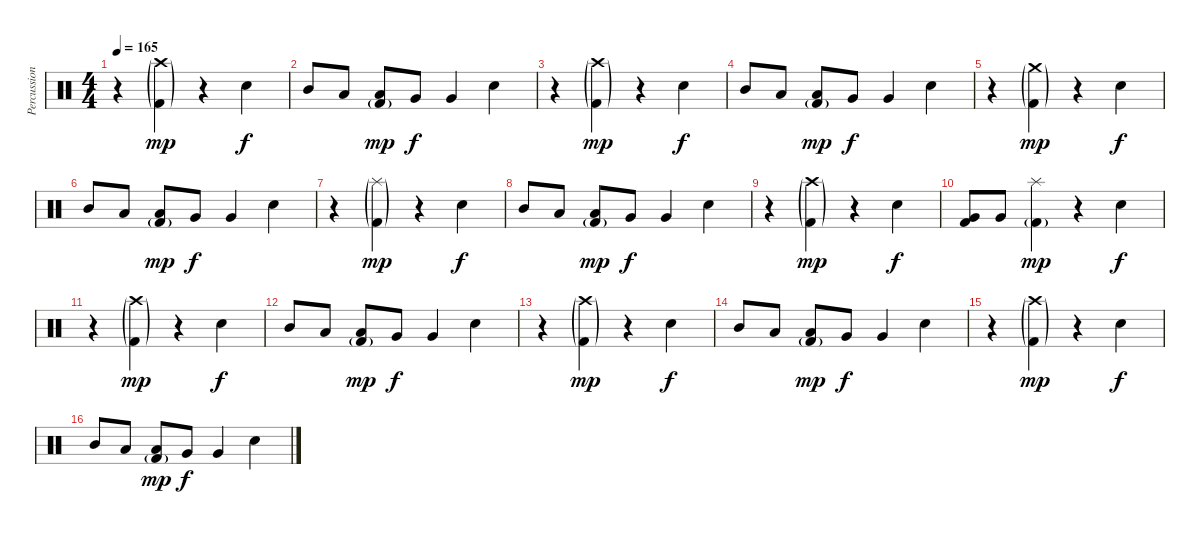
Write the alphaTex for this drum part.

\track ("Percussions" "Percussion") {instrument percussion}
\staff {score}
\articulation defaults
\ts (4 4)
\tempo 165
\clef neutral
\ks c
r.4{dy f} ("Kick (hit) 2"{g} "Crash high (hit)"{g}).4{dy mp} r.4 "Electric Snare (hit)".4{dy f} |
"Mid Tom (hit)".8 "Low Tom (hit)".8 ("Kick (hit) 2"{g} "Low Tom (hit)").8{dy mp} "Very Low Tom (hit)".8{dy f} "Very Low Tom (hit)".4 "Electric Snare (hit)".4 |
r.4 ("Kick (hit) 2"{g} "Crash high (hit)"{g}).4{dy mp} r.4 "Electric Snare (hit)".4{dy f} |
"Mid Tom (hit)".8 "Low Tom (hit)".8 ("Kick (hit) 2"{g} "Low Tom (hit)").8{dy mp} "Very Low Tom (hit)".8{dy f} "Very Low Tom (hit)".4 "Electric Snare (hit)".4 |
r.4 ("Kick (hit) 2"{g} "Crash medium (hit)"{g}).4{dy mp} r.4 "Electric Snare (hit)".4{dy f} |
"Mid Tom (hit)".8 "Low Tom (hit)".8 ("Kick (hit) 2"{g} "Low Tom (hit)").8{dy mp} "Very Low Tom (hit)".8{dy f} "Very Low Tom (hit)".4 "Electric Snare (hit)".4 |
r.4 ("Kick (hit) 2"{g} "Splash (hit)"{g}).4{dy mp} r.4 "Electric Snare (hit)".4{dy f} |
"Mid Tom (hit)".8 "Low Tom (hit)".8 ("Kick (hit) 2"{g} "Low Tom (hit)").8{dy mp} "Very Low Tom (hit)".8{dy f} "Very Low Tom (hit)".4 "Electric Snare (hit)".4 |
r.4 ("Kick (hit) 2"{g} "Crash high (hit)"{g}).4{dy mp} r.4 "Electric Snare (hit)".4{dy f} |
("Very Low Tom (hit)" "Kick (hit) 2").8 "Very Low Tom (hit)".8 ("Kick (hit) 2"{g} "Splash (hit)").4{dy mp} r.4 "Electric Snare (hit)".4{dy f} |
r.4 ("Kick (hit) 2"{g} "Crash high (hit)"{g}).4{dy mp} r.4 "Electric Snare (hit)".4{dy f} |
"Mid Tom (hit)".8 "Low Tom (hit)".8 ("Kick (hit) 2"{g} "Low Tom (hit)").8{dy mp} "Very Low Tom (hit)".8{dy f} "Very Low Tom (hit)".4 "Electric Snare (hit)".4 |
r.4 ("Kick (hit) 2"{g} "Crash high (hit)"{g}).4{dy mp} r.4 "Electric Snare (hit)".4{dy f} |
"Mid Tom (hit)".8 "Low Tom (hit)".8 ("Kick (hit) 2"{g} "Low Tom (hit)").8{dy mp} "Very Low Tom (hit)".8{dy f} "Very Low Tom (hit)".4 "Electric Snare (hit)".4 |
r.4 ("Kick (hit) 2"{g} "Crash high (hit)"{g}).4{dy mp} r.4 "Electric Snare (hit)".4{dy f} |
"Mid Tom (hit)".8 "Low Tom (hit)".8 ("Kick (hit) 2"{g} "Low Tom (hit)").8{dy mp} "Very Low Tom (hit)".8{dy f} "Very Low Tom (hit)".4 "Electric Snare (hit)".4
